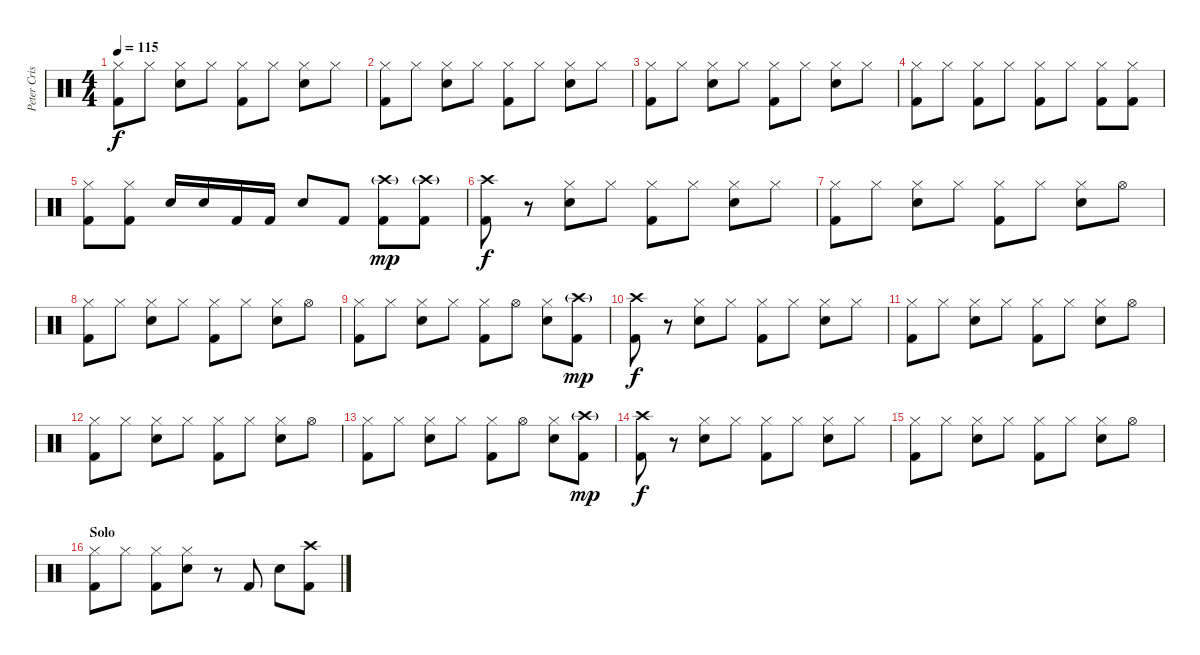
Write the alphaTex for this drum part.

\track ("Peter Criss" "Peter Cris") {instrument percussion}
\staff {score}
\articulation defaults
\ts (4 4)
\tempo 115
\clef neutral
\ks c
("Hi-Hat (closed)" "Kick (hit) 2").8{dy f} "Hi-Hat (closed)".8 ("Hi-Hat (closed)" "Electric Snare (hit)").8 "Hi-Hat (closed)".8 ("Hi-Hat (closed)" "Kick (hit) 2").8 "Hi-Hat (closed)".8 ("Hi-Hat (closed)" "Electric Snare (hit)").8 "Hi-Hat (closed)".8 |
("Hi-Hat (closed)" "Kick (hit) 2").8 "Hi-Hat (closed)".8 ("Hi-Hat (closed)" "Electric Snare (hit)").8 "Hi-Hat (closed)".8 ("Hi-Hat (closed)" "Kick (hit) 2").8 "Hi-Hat (closed)".8 ("Hi-Hat (closed)" "Electric Snare (hit)").8 "Hi-Hat (closed)".8 |
("Hi-Hat (closed)" "Kick (hit) 2").8 "Hi-Hat (closed)".8 ("Hi-Hat (closed)" "Electric Snare (hit)").8 "Hi-Hat (closed)".8 ("Hi-Hat (closed)" "Kick (hit) 2").8 "Hi-Hat (closed)".8 ("Hi-Hat (closed)" "Electric Snare (hit)").8 "Hi-Hat (closed)".8 |
("Hi-Hat (closed)" "Kick (hit) 2").8 "Hi-Hat (closed)".8 ("Hi-Hat (closed)" "Kick (hit) 2").8 "Hi-Hat (closed)".8 ("Hi-Hat (closed)" "Kick (hit) 2").8 "Hi-Hat (closed)".8 ("Hi-Hat (closed)" "Kick (hit) 2").8 ("Hi-Hat (closed)" "Kick (hit) 2").8 |
("Hi-Hat (closed)" "Kick (hit) 2").8 ("Hi-Hat (closed)" "Kick (hit) 2").8 "Electric Snare (hit)".16 "Electric Snare (hit)".16 "Kick (hit) 2".16 "Kick (hit) 2".16 "Electric Snare (hit)".8 "Kick (hit) 2".8 ("Crash high (hit)"{g} "Kick (hit) 2").8{dy mp} ("Crash high (hit)"{g} "Kick (hit) 2").8 |
("Crash high (hit)" "Kick (hit) 2").8{dy f} r.8 ("Hi-Hat (closed)" "Electric Snare (hit)").8 "Hi-Hat (closed)".8 ("Hi-Hat (closed)" "Kick (hit) 2").8 "Hi-Hat (closed)".8 ("Hi-Hat (closed)" "Electric Snare (hit)").8 "Hi-Hat (closed)".8 |
("Hi-Hat (closed)" "Kick (hit) 2").8 "Hi-Hat (closed)".8 ("Hi-Hat (closed)" "Electric Snare (hit)").8 "Hi-Hat (closed)".8 ("Hi-Hat (closed)" "Kick (hit) 2").8 "Hi-Hat (closed)".8 ("Hi-Hat (closed)" "Electric Snare (hit)").8 "Hi-Hat (open)".8 |
("Hi-Hat (closed)" "Kick (hit) 2").8 "Hi-Hat (closed)".8 ("Hi-Hat (closed)" "Electric Snare (hit)").8 "Hi-Hat (closed)".8 ("Hi-Hat (closed)" "Kick (hit) 2").8 "Hi-Hat (closed)".8 ("Hi-Hat (closed)" "Electric Snare (hit)").8 "Hi-Hat (open)".8 |
("Hi-Hat (closed)" "Kick (hit) 2").8 "Hi-Hat (closed)".8 ("Hi-Hat (closed)" "Electric Snare (hit)").8 "Hi-Hat (closed)".8 ("Hi-Hat (closed)" "Kick (hit) 2").8 "Hi-Hat (open)".8 ("Hi-Hat (closed)" "Electric Snare (hit)").8 ("Crash high (hit)"{g} "Kick (hit) 2").8{dy mp} |
("Crash high (hit)" "Kick (hit) 2").8{dy f} r.8 ("Hi-Hat (closed)" "Electric Snare (hit)").8 "Hi-Hat (closed)".8 ("Hi-Hat (closed)" "Kick (hit) 2").8 "Hi-Hat (closed)".8 ("Hi-Hat (closed)" "Electric Snare (hit)").8 "Hi-Hat (closed)".8 |
("Hi-Hat (closed)" "Kick (hit) 2").8 "Hi-Hat (closed)".8 ("Hi-Hat (closed)" "Electric Snare (hit)").8 "Hi-Hat (closed)".8 ("Hi-Hat (closed)" "Kick (hit) 2").8 "Hi-Hat (closed)".8 ("Hi-Hat (closed)" "Electric Snare (hit)").8 "Hi-Hat (open)".8 |
("Hi-Hat (closed)" "Kick (hit) 2").8 "Hi-Hat (closed)".8 ("Hi-Hat (closed)" "Electric Snare (hit)").8 "Hi-Hat (closed)".8 ("Hi-Hat (closed)" "Kick (hit) 2").8 "Hi-Hat (closed)".8 ("Hi-Hat (closed)" "Electric Snare (hit)").8 "Hi-Hat (open)".8 |
("Hi-Hat (closed)" "Kick (hit) 2").8 "Hi-Hat (closed)".8 ("Hi-Hat (closed)" "Electric Snare (hit)").8 "Hi-Hat (closed)".8 ("Hi-Hat (closed)" "Kick (hit) 2").8 "Hi-Hat (open)".8 ("Hi-Hat (closed)" "Electric Snare (hit)").8 ("Crash high (hit)"{g} "Kick (hit) 2").8{dy mp} |
("Crash high (hit)" "Kick (hit) 2").8{dy f} r.8 ("Hi-Hat (closed)" "Electric Snare (hit)").8 "Hi-Hat (closed)".8 ("Hi-Hat (closed)" "Kick (hit) 2").8 "Hi-Hat (closed)".8 ("Hi-Hat (closed)" "Electric Snare (hit)").8 "Hi-Hat (closed)".8 |
("Hi-Hat (closed)" "Kick (hit) 2").8 "Hi-Hat (closed)".8 ("Hi-Hat (closed)" "Electric Snare (hit)").8 "Hi-Hat (closed)".8 ("Hi-Hat (closed)" "Kick (hit) 2").8 "Hi-Hat (closed)".8 ("Hi-Hat (closed)" "Electric Snare (hit)").8 "Hi-Hat (open)".8 |
\section ("" "Solo")
("Hi-Hat (closed)" "Kick (hit) 2").8 "Hi-Hat (closed)".8 ("Hi-Hat (closed)" "Kick (hit) 2").8 ("Hi-Hat (closed)" "Electric Snare (hit)").8 r.8 "Kick (hit) 2".8 "Electric Snare (hit)".8 ("Crash high (hit)" "Kick (hit) 2").8
